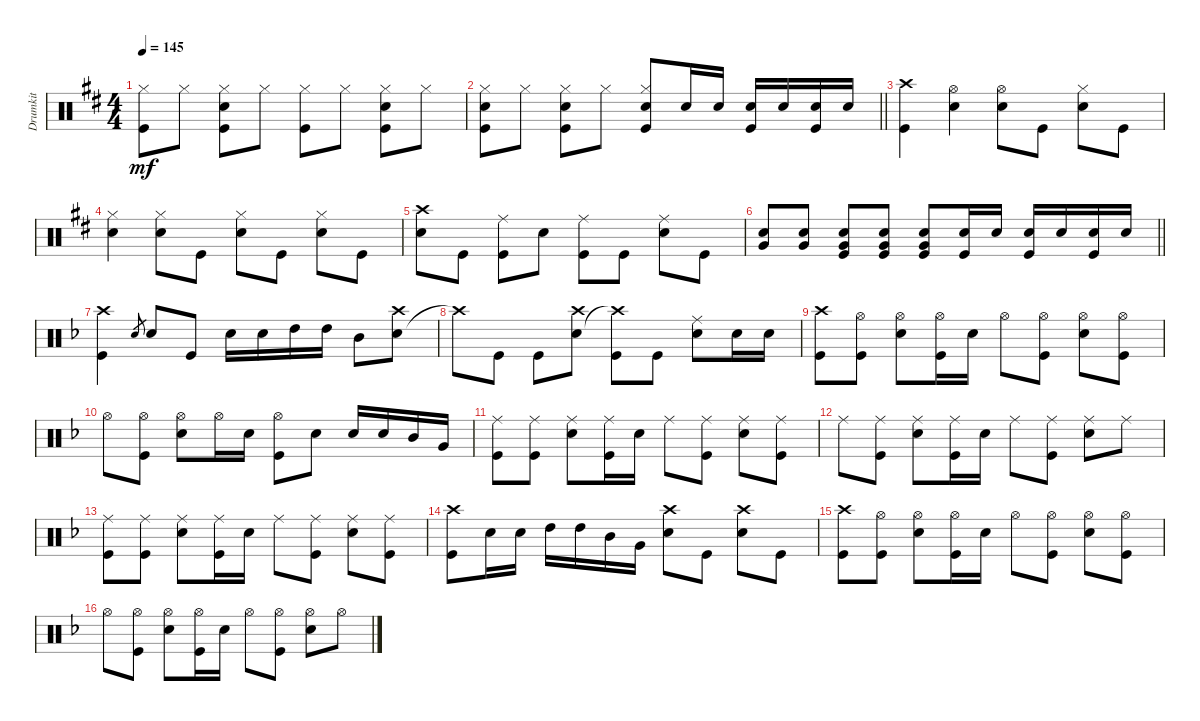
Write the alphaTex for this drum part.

\track ("Drumkit" "Drumkit") {instrument percussion}
\staff {score}
\articulation defaults
\ts (4 4)
\tempo 145
\clef neutral
\ks d
("Kick (hit)" "Hi-Hat (closed)").8{dy mf} "Hi-Hat (closed)".8 ("Hi-Hat (closed)" "Kick (hit)" "Snare (hit) 2").8 "Hi-Hat (closed)".8 ("Hi-Hat (closed)" "Kick (hit)").8 "Hi-Hat (closed)".8 ("Hi-Hat (closed)" "Kick (hit)" "Snare (hit) 2").8 "Hi-Hat (closed)".8 |
\barLineRight lightlight
("Snare (hit) 2" "Kick (hit)" "Hi-Hat (closed)").8 "Hi-Hat (closed)".8 ("Hi-Hat (closed)" "Snare (hit) 2" "Kick (hit)").8 "Hi-Hat (closed)".8 ("Kick (hit)" "Snare (hit) 2" "Hi-Hat (closed)").8 "Snare (hit) 2".16 "Snare (hit) 2".16 ("Snare (hit) 2" "Kick (hit)").16 "Snare (hit) 2".16 ("Snare (hit) 2" "Kick (hit)").16 "Snare (hit) 2".16 |
("Crash high (hit)" "Kick (hit)").4 ("Snare (hit) 2" "Hi-Hat (open)").4 ("Hi-Hat (open)" "Snare (hit) 2").8 "Kick (hit)".8 ("Snare (hit) 2" "Hi-Hat (closed)").8 "Kick (hit)".8 |
("Snare (hit) 2" "Hi-Hat (closed)").4 ("Hi-Hat (closed)" "Snare (hit) 2").8 "Kick (hit)".8 ("Snare (hit) 2" "Hi-Hat (closed)").8 "Kick (hit)".8 ("Snare (hit) 2" "Hi-Hat (closed)").8 "Kick (hit)".8 |
("Crash high (hit)" "Snare (hit) 2").8 "Kick (hit)".8 ("Kick (hit)" "Ride (middle)").8 "Snare (hit) 2".8 ("Ride (middle)" "Kick (hit)").8 "Kick (hit)".8 ("Snare (hit) 2" "Ride (middle)").8 "Kick (hit)".8 |
\barLineRight lightlight
("Snare (hit) 2" "Very Low Tom (hit)").8 ("Very Low Tom (hit)" "Snare (hit) 2").8 ("Snare (hit) 2" "Very Low Tom (hit)" "Kick (hit)").8 ("Kick (hit)" "Very Low Tom (hit)" "Snare (hit) 2").8 ("Snare (hit) 2" "Very Low Tom (hit)" "Kick (hit)").8 ("Snare (hit) 2" "Kick (hit)").16 "Snare (hit) 2".16 ("Snare (hit) 2" "Kick (hit)").16 "Snare (hit) 2".16 ("Snare (hit) 2" "Kick (hit)").16 "Snare (hit) 2".16 |
\ks f
("Crash high (hit)" "Kick (hit)").4 "Snare (hit)".8{gr} "Snare (hit) 2".8 "Kick (hit)".8 "Snare (hit) 2".16 "Snare (hit) 2".16 "High Tom (hit)".16 "High Tom (hit)".16 "Mid Tom (hit)".8 ("Snare (hit) 2" "Crash high (hit)").8 |
"Crash high (hit)"{t}.8 "Kick (hit)".8 "Kick (hit)".8 ("Snare (hit) 2" "Crash high (hit)").8 ("Crash high (hit)"{t} "Kick (hit)").8 "Kick (hit)".8 ("Snare (hit) 2" "Ride (middle)").8 "Snare (hit) 2".16 "Snare (hit) 2".16 |
("Crash high (hit)" "Kick (hit)").8 ("Hi-Hat (open)" "Kick (hit)").8 ("Snare (hit) 2" "Hi-Hat (open)").8 ("Hi-Hat (open)" "Kick (hit)").16 "Snare (hit) 2".16 "Hi-Hat (open)".8 ("Hi-Hat (open)" "Kick (hit)").8 ("Snare (hit) 2" "Hi-Hat (open)").8 ("Kick (hit)" "Hi-Hat (open)").8 |
"Hi-Hat (open)".8 ("Hi-Hat (open)" "Kick (hit)").8 ("Hi-Hat (open)" "Snare (hit) 2").8 "Hi-Hat (open)".16 "Snare (hit) 2".16 ("Kick (hit)" "Hi-Hat (open)").8 "Snare (hit) 2".8 "Snare (hit) 2".16 "Snare (hit) 2".16 "Mid Tom (hit)".16 "Very Low Tom (hit)".16 |
("Kick (hit)" "Ride (middle)").8 ("Kick (hit)" "Ride (middle)").8 ("Snare (hit) 2" "Ride (middle)").8 ("Kick (hit)" "Ride (middle)").16 "Snare (hit) 2".16 "Ride (middle)".8 ("Kick (hit)" "Ride (middle)").8 ("Snare (hit) 2" "Ride (middle)").8 ("Kick (hit)" "Ride (middle)").8 |
"Ride (middle)".8 ("Kick (hit)" "Ride (middle)").8 ("Snare (hit) 2" "Ride (middle)").8 ("Kick (hit)" "Ride (middle)").16 "Snare (hit) 2".16 "Ride (middle)".8 ("Kick (hit)" "Ride (middle)").8 ("Snare (hit) 2" "Ride (middle)").8 "Ride (middle)".8 |
("Kick (hit)" "Ride (middle)").8 ("Kick (hit)" "Ride (middle)").8 ("Snare (hit) 2" "Ride (middle)").8 ("Kick (hit)" "Ride (middle)").16 "Snare (hit) 2".16 "Ride (middle)".8 ("Kick (hit)" "Ride (middle)").8 ("Snare (hit) 2" "Ride (middle)").8 ("Kick (hit)" "Ride (middle)").8 |
("Kick (hit)" "Crash high (hit)").8 "Snare (hit) 2".16 "Snare (hit) 2".16 "High Tom (hit)".16 "High Tom (hit)".16 "Mid Tom (hit)".16 "Very Low Tom (hit)".16 ("Snare (hit) 2" "Crash high (hit)").8 "Kick (hit)".8 ("Snare (hit) 2" "Crash high (hit)").8 "Kick (hit)".8 |
("Crash high (hit)" "Kick (hit)").8 ("Hi-Hat (open)" "Kick (hit)").8 ("Hi-Hat (open)" "Snare (hit) 2").8 ("Hi-Hat (open)" "Kick (hit)").16 "Snare (hit) 2".16 "Hi-Hat (open)".8 ("Hi-Hat (open)" "Kick (hit)").8 ("Snare (hit) 2" "Hi-Hat (open)").8 ("Kick (hit)" "Hi-Hat (open)").8 |
"Hi-Hat (open)".8 ("Hi-Hat (open)" "Kick (hit)").8 ("Hi-Hat (open)" "Snare (hit) 2").8 ("Hi-Hat (open)" "Kick (hit)").16 "Snare (hit) 2".16 "Hi-Hat (open)".8 ("Hi-Hat (open)" "Kick (hit)").8 ("Snare (hit) 2" "Hi-Hat (open)").8 "Hi-Hat (open)".8
